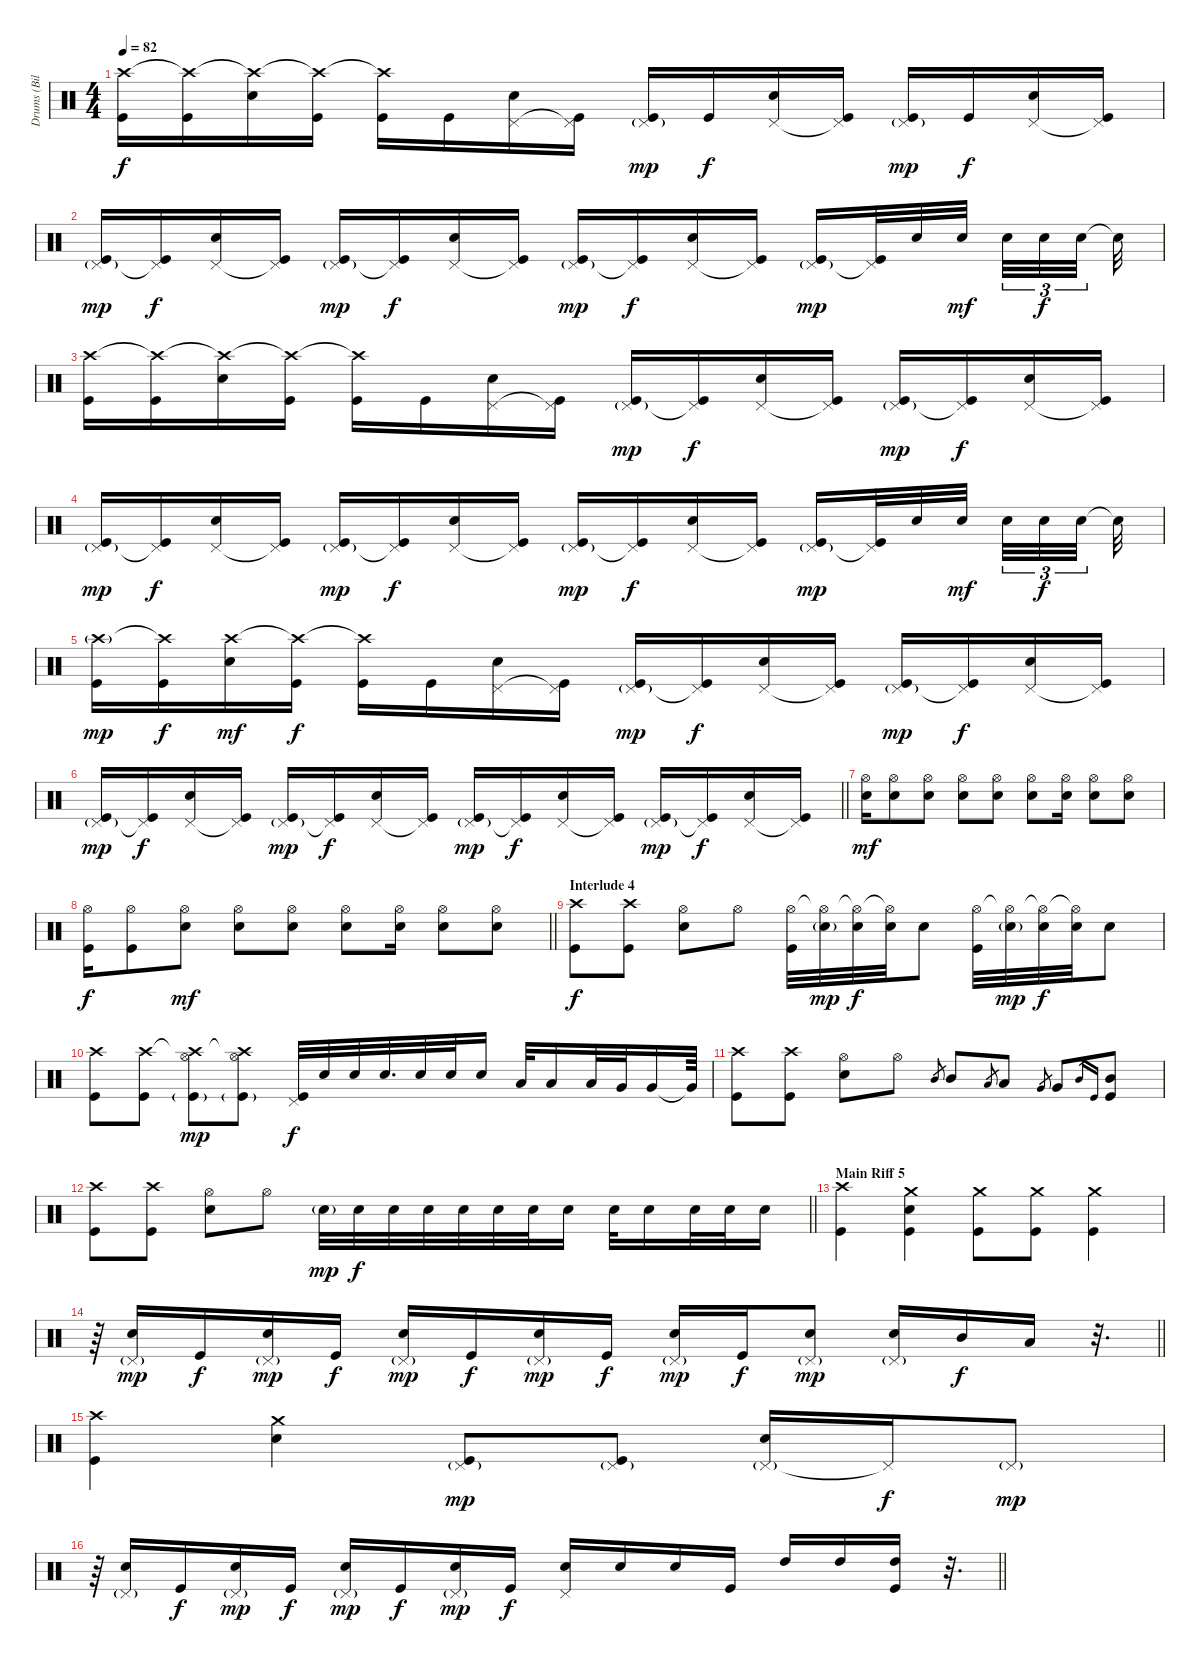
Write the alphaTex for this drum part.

\track ("Drums (Bill Ward)" "Drums (Bil") {instrument percussion}
\staff {score}
\articulation defaults
\ts (4 4)
\tempo 82
\clef neutral
\ks c
("Crash high (hit)" "Kick (hit)").16{dy f} ("Crash high (hit)"{t} "Kick (hit)").16 ("Crash high (hit)"{t} "Electric Snare (hit)").16 ("Crash high (hit)"{t} "Kick (hit)").16 ("Crash high (hit)"{t} "Kick (hit)").16 "Kick (hit)".16 ("Pedal Hi-Hat (hit)" "Electric Snare (hit)").16 ("Pedal Hi-Hat (hit)"{t} "Kick (hit)").16 ("Pedal Hi-Hat (hit)"{g} "Kick (hit)").16{dy mp} "Kick (hit)".16{dy f} ("Pedal Hi-Hat (hit)" "Electric Snare (hit)").16 ("Pedal Hi-Hat (hit)"{t} "Kick (hit)").16 ("Pedal Hi-Hat (hit)"{g} "Kick (hit)").16{dy mp} "Kick (hit)".16{dy f} ("Pedal Hi-Hat (hit)" "Electric Snare (hit)").16 ("Pedal Hi-Hat (hit)"{t} "Kick (hit)").16 |
("Pedal Hi-Hat (hit)"{g} "Kick (hit)").16{dy mp} ("Pedal Hi-Hat (hit)"{t} "Kick (hit)").16{dy f} ("Pedal Hi-Hat (hit)" "Electric Snare (hit)").16 ("Pedal Hi-Hat (hit)"{t} "Kick (hit)").16 ("Pedal Hi-Hat (hit)"{g} "Kick (hit)").16{dy mp} ("Pedal Hi-Hat (hit)"{t} "Kick (hit)").16{dy f} ("Pedal Hi-Hat (hit)" "Electric Snare (hit)").16 ("Pedal Hi-Hat (hit)"{t} "Kick (hit)").16 ("Pedal Hi-Hat (hit)"{g} "Kick (hit)").16{dy mp} ("Pedal Hi-Hat (hit)"{t} "Kick (hit)").16{dy f} ("Pedal Hi-Hat (hit)" "Electric Snare (hit)").16 ("Pedal Hi-Hat (hit)"{t} "Kick (hit)").16 ("Pedal Hi-Hat (hit)"{g} "Kick (hit)").16{dy mp} ("Pedal Hi-Hat (hit)"{t} "Kick (hit)").32 "Electric Snare (hit)".32 "Electric Snare (hit)".32{dy mf beam splitsecondary} "Electric Snare (hit)".32{tu (3 2)} "Electric Snare (hit)".32{tu (3 2) dy f} "Electric Snare (hit)".32{tu (3 2) beam splitsecondary} "Electric Snare (hit)"{t}.32 |
("Crash high (hit)" "Kick (hit)").16 ("Crash high (hit)"{t} "Kick (hit)").16 ("Crash high (hit)"{t} "Electric Snare (hit)").16 ("Crash high (hit)"{t} "Kick (hit)").16 ("Crash high (hit)"{t} "Kick (hit)").16 "Kick (hit)".16 ("Pedal Hi-Hat (hit)" "Electric Snare (hit)").16 ("Pedal Hi-Hat (hit)"{t} "Kick (hit)").16 ("Pedal Hi-Hat (hit)"{g} "Kick (hit)").16{dy mp} ("Pedal Hi-Hat (hit)"{t} "Kick (hit)").16{dy f} ("Pedal Hi-Hat (hit)" "Electric Snare (hit)").16 ("Pedal Hi-Hat (hit)"{t} "Kick (hit)").16 ("Pedal Hi-Hat (hit)"{g} "Kick (hit)").16{dy mp} ("Pedal Hi-Hat (hit)"{t} "Kick (hit)").16{dy f} ("Pedal Hi-Hat (hit)" "Electric Snare (hit)").16 ("Pedal Hi-Hat (hit)"{t} "Kick (hit)").16 |
("Pedal Hi-Hat (hit)"{g} "Kick (hit)").16{dy mp} ("Pedal Hi-Hat (hit)"{t} "Kick (hit)").16{dy f} ("Pedal Hi-Hat (hit)" "Electric Snare (hit)").16 ("Pedal Hi-Hat (hit)"{t} "Kick (hit)").16 ("Pedal Hi-Hat (hit)"{g} "Kick (hit)").16{dy mp} ("Pedal Hi-Hat (hit)"{t} "Kick (hit)").16{dy f} ("Pedal Hi-Hat (hit)" "Electric Snare (hit)").16 ("Pedal Hi-Hat (hit)"{t} "Kick (hit)").16 ("Pedal Hi-Hat (hit)"{g} "Kick (hit)").16{dy mp} ("Pedal Hi-Hat (hit)"{t} "Kick (hit)").16{dy f} ("Pedal Hi-Hat (hit)" "Electric Snare (hit)").16 ("Pedal Hi-Hat (hit)"{t} "Kick (hit)").16 ("Pedal Hi-Hat (hit)"{g} "Kick (hit)").16{dy mp} ("Pedal Hi-Hat (hit)"{t} "Kick (hit)").32 "Electric Snare (hit)".32 "Electric Snare (hit)".32{dy mf beam splitsecondary} "Electric Snare (hit)".32{tu (3 2)} "Electric Snare (hit)".32{tu (3 2) dy f} "Electric Snare (hit)".32{tu (3 2) beam splitsecondary} "Electric Snare (hit)"{t}.32 |
("Crash high (hit)"{g} "Kick (hit)").16{dy mp} ("Crash high (hit)"{t} "Kick (hit)").16{dy f} ("Crash high (hit)" "Electric Snare (hit)").16{dy mf} ("Crash high (hit)"{t} "Kick (hit)").16{dy f} ("Crash high (hit)"{t} "Kick (hit)").16 "Kick (hit)".16 ("Pedal Hi-Hat (hit)" "Electric Snare (hit)").16 ("Pedal Hi-Hat (hit)"{t} "Kick (hit)").16 ("Pedal Hi-Hat (hit)"{g} "Kick (hit)").16{dy mp} ("Pedal Hi-Hat (hit)"{t} "Kick (hit)").16{dy f} ("Pedal Hi-Hat (hit)" "Electric Snare (hit)").16 ("Pedal Hi-Hat (hit)"{t} "Kick (hit)").16 ("Pedal Hi-Hat (hit)"{g} "Kick (hit)").16{dy mp} ("Pedal Hi-Hat (hit)"{t} "Kick (hit)").16{dy f} ("Pedal Hi-Hat (hit)" "Electric Snare (hit)").16 ("Pedal Hi-Hat (hit)"{t} "Kick (hit)").16 |
\barLineRight lightlight
("Pedal Hi-Hat (hit)"{g} "Kick (hit)").16{dy mp} ("Pedal Hi-Hat (hit)"{t} "Kick (hit)").16{dy f} ("Pedal Hi-Hat (hit)" "Electric Snare (hit)").16 ("Pedal Hi-Hat (hit)"{t} "Kick (hit)").16 ("Pedal Hi-Hat (hit)"{g} "Kick (hit)").16{dy mp} ("Pedal Hi-Hat (hit)"{t} "Kick (hit)").16{dy f} ("Pedal Hi-Hat (hit)" "Electric Snare (hit)").16 ("Pedal Hi-Hat (hit)"{t} "Kick (hit)").16 ("Pedal Hi-Hat (hit)"{g} "Kick (hit)").16{dy mp} ("Pedal Hi-Hat (hit)"{t} "Kick (hit)").16{dy f} ("Pedal Hi-Hat (hit)" "Electric Snare (hit)").16 ("Pedal Hi-Hat (hit)"{t} "Kick (hit)").16 ("Pedal Hi-Hat (hit)"{g} "Kick (hit)").16{dy mp} ("Pedal Hi-Hat (hit)"{t} "Kick (hit)").16{dy f} ("Pedal Hi-Hat (hit)" "Electric Snare (hit)").16 ("Pedal Hi-Hat (hit)"{t} "Kick (hit)").16 |
("Hi-Hat (open)" "Electric Snare (hit)").16{dy mf} ("Hi-Hat (open)" "Electric Snare (hit)").8 ("Hi-Hat (open)" "Electric Snare (hit)").8 ("Hi-Hat (open)" "Electric Snare (hit)").8 ("Hi-Hat (open)" "Electric Snare (hit)").8 ("Hi-Hat (open)" "Electric Snare (hit)").8 ("Hi-Hat (open)" "Electric Snare (hit)").16 ("Hi-Hat (open)" "Electric Snare (hit)").8 ("Hi-Hat (open)" "Electric Snare (hit)").8 |
\barLineRight lightlight
("Hi-Hat (open)" "Kick (hit)").16{dy f} ("Hi-Hat (open)" "Kick (hit)").8 ("Hi-Hat (open)" "Electric Snare (hit)").8{dy mf} ("Hi-Hat (open)" "Electric Snare (hit)").8 ("Hi-Hat (open)" "Electric Snare (hit)").8 ("Hi-Hat (open)" "Electric Snare (hit)").8 ("Hi-Hat (open)" "Electric Snare (hit)").16 ("Hi-Hat (open)" "Electric Snare (hit)").8 ("Hi-Hat (open)" "Electric Snare (hit)").8 |
\section ("" "Interlude 4")
("Crash high (hit)" "Kick (hit)").8{dy f} ("Crash high (hit)" "Kick (hit)").8 ("Hi-Hat (open)" "Electric Snare (hit)").8 "Hi-Hat (open)".8 ("Hi-Hat (open)" "Kick (hit)").32 ("Hi-Hat (open)"{t} "Electric Snare (hit)"{g}).32{dy mp} ("Hi-Hat (open)"{t} "Electric Snare (hit)").32{dy f} ("Hi-Hat (open)"{t} "Electric Snare (hit)").32 "Electric Snare (hit)".8 ("Hi-Hat (open)" "Kick (hit)").32 ("Hi-Hat (open)"{t} "Electric Snare (hit)"{g}).32{dy mp} ("Hi-Hat (open)"{t} "Electric Snare (hit)").32{dy f} ("Hi-Hat (open)"{t} "Electric Snare (hit)").32 "Electric Snare (hit)".8 |
("Crash high (hit)" "Kick (hit)").8 ("Crash high (hit)" "Kick (hit)").8 ("Crash high (hit)"{t} "Hi-Hat (open)" "Kick (hit)"{g}).8{dy mp} ("Crash high (hit)"{t} "Hi-Hat (open)" "Kick (hit)"{g}).8 ("Pedal Hi-Hat (hit)" "Kick (hit)").32{dy f} "Electric Snare (hit)".32 "Electric Snare (hit)".32 "Electric Snare (hit)".32{d} "Electric Snare (hit)".32 "Electric Snare (hit)".32 "Electric Snare (hit)".16 "Low Tom (hit)".32 "Low Tom (hit)".16 "Low Tom (hit)".32 "Very Low Tom (hit)".32 "Very Low Tom (hit)".16 "Very Low Tom (hit)"{t}.64 |
("Crash high (hit)" "Kick (hit)").8 ("Crash high (hit)" "Kick (hit)").8 ("Hi-Hat (open)" "Electric Snare (hit)").8 "Hi-Hat (open)".8 "Mid Tom (hit)".8{gr} "Mid Tom (hit)".8 "Low Tom (hit)".8{gr} "Low Tom (hit)".8 "Very Low Tom (hit)".8{gr} "Very Low Tom (hit)".8 "Mid Tom (hit)".16{gr} "Kick (hit)".16{gr} ("Mid Tom (hit)" "Kick (hit)").8 |
\barLineRight lightlight
("Crash high (hit)" "Kick (hit)").8 ("Crash high (hit)" "Kick (hit)").8 ("Hi-Hat (open)" "Electric Snare (hit)").8 "Hi-Hat (open)".8 "Electric Snare (hit)"{g}.32{dy mp} "Electric Snare (hit)".32{dy f} "Electric Snare (hit)".32 "Electric Snare (hit)".32 "Electric Snare (hit)".32 "Electric Snare (hit)".32 "Electric Snare (hit)".32 "Electric Snare (hit)".16 "Electric Snare (hit)".32 "Electric Snare (hit)".16 "Electric Snare (hit)".32 "Electric Snare (hit)".32 "Electric Snare (hit)".16 |
\section ("" "Main Riff 5")
("Crash high (hit)" "Kick (hit)").4 ("Crash medium (hit)" "Electric Snare (hit)" "Kick (hit)").4 ("Crash medium (hit)" "Kick (hit)").8 ("Crash medium (hit)" "Kick (hit)").8 ("Crash medium (hit)" "Kick (hit)").4 |
\barLineRight lightlight
r.64 ("Pedal Hi-Hat (hit)"{g} "Electric Snare (hit)").16{dy mp} "Kick (hit)".16{dy f} ("Pedal Hi-Hat (hit)"{g} "Electric Snare (hit)").16{dy mp} "Kick (hit)".16{dy f} ("Pedal Hi-Hat (hit)"{g} "Electric Snare (hit)").16{dy mp} "Kick (hit)".16{dy f} ("Pedal Hi-Hat (hit)"{g} "Electric Snare (hit)").16{dy mp} "Kick (hit)".16{dy f} ("Pedal Hi-Hat (hit)"{g} "Electric Snare (hit)").16{dy mp} "Kick (hit)".16{dy f} ("Pedal Hi-Hat (hit)"{g} "Electric Snare (hit)").8{dy mp} ("Pedal Hi-Hat (hit)"{g} "Electric Snare (hit)").16 "Mid Tom (hit)".16{dy f} "Low Tom (hit)".16 r.32{d} |
("Crash high (hit)" "Kick (hit)").4 ("Crash medium (hit)" "Electric Snare (hit)").4 ("Pedal Hi-Hat (hit)"{g} "Kick (hit)").8{dy mp} ("Pedal Hi-Hat (hit)"{g} "Kick (hit)").8 ("Pedal Hi-Hat (hit)"{g} "Electric Snare (hit)").16 "Pedal Hi-Hat (hit)"{t}.16{dy f} "Pedal Hi-Hat (hit)"{g}.8{dy mp} |
\barLineRight lightlight
r.64 ("Pedal Hi-Hat (hit)"{g} "Electric Snare (hit)").16 "Kick (hit)".16{dy f} ("Pedal Hi-Hat (hit)"{g} "Electric Snare (hit)").16{dy mp} "Kick (hit)".16{dy f} ("Pedal Hi-Hat (hit)"{g} "Electric Snare (hit)").16{dy mp} "Kick (hit)".16{dy f} ("Pedal Hi-Hat (hit)"{g} "Electric Snare (hit)").16{dy mp} "Kick (hit)".16{dy f} ("Pedal Hi-Hat (hit)" "Electric Snare (hit)").16 "Electric Snare (hit)".16 "Electric Snare (hit)".16 "Kick (hit)".16 "High Tom (hit)".16 "High Tom (hit)".16 ("High Tom (hit)" "Kick (hit)").16 r.32{d}
